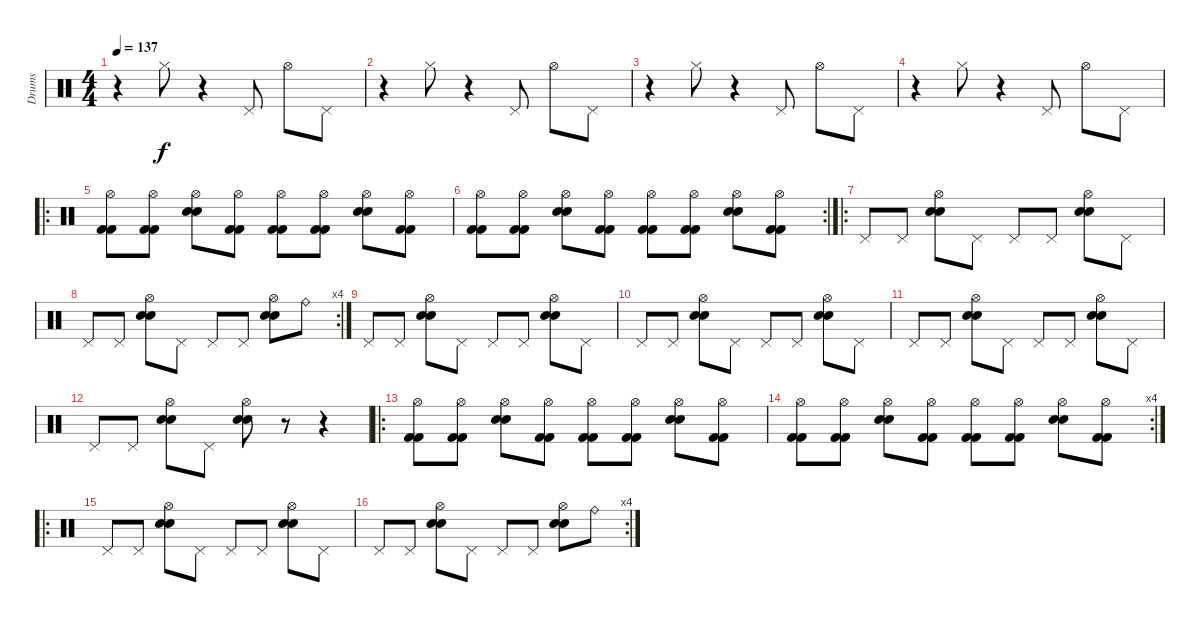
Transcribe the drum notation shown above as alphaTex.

\track ("Drums" "Drums") {instrument percussion}
\staff {score}
\articulation defaults
\ts (4 4)
\tempo 137
\clef neutral
\ks c
r.4{dy f} "Hi-Hat (closed)".8 r.4 "Pedal Hi-Hat (hit)".8 "Hi-Hat (open)".8 "Pedal Hi-Hat (hit)".8 |
r.4 "Hi-Hat (closed)".8 r.4 "Pedal Hi-Hat (hit)".8 "Hi-Hat (open)".8 "Pedal Hi-Hat (hit)".8 |
r.4 "Hi-Hat (closed)".8 r.4 "Pedal Hi-Hat (hit)".8 "Hi-Hat (open)".8 "Pedal Hi-Hat (hit)".8 |
r.4 "Hi-Hat (closed)".8 r.4 "Pedal Hi-Hat (hit)".8 "Hi-Hat (open)".8 "Pedal Hi-Hat (hit)".8 |
\ro
("Hi-Hat (open)" "Kick (hit) 2" "Kick (hit) 2").8 ("Hi-Hat (open)" "Kick (hit) 2" "Kick (hit) 2").8 ("Hi-Hat (open)" "Electric Snare (hit)" "Electric Snare (hit)").8 ("Hi-Hat (open)" "Kick (hit) 2" "Kick (hit) 2").8 ("Hi-Hat (open)" "Kick (hit) 2" "Kick (hit) 2").8 ("Hi-Hat (open)" "Kick (hit) 2" "Kick (hit) 2").8 ("Hi-Hat (open)" "Electric Snare (hit)" "Electric Snare (hit)").8 ("Hi-Hat (open)" "Kick (hit) 2" "Kick (hit) 2").8 |
\rc 2
("Hi-Hat (open)" "Kick (hit) 2" "Kick (hit) 2").8 ("Hi-Hat (open)" "Kick (hit) 2" "Kick (hit) 2").8 ("Hi-Hat (open)" "Electric Snare (hit)" "Electric Snare (hit)").8 ("Hi-Hat (open)" "Kick (hit) 2" "Kick (hit) 2").8 ("Hi-Hat (open)" "Kick (hit) 2" "Kick (hit) 2").8 ("Hi-Hat (open)" "Kick (hit) 2" "Kick (hit) 2").8 ("Hi-Hat (open)" "Electric Snare (hit)" "Electric Snare (hit)").8 ("Hi-Hat (open)" "Kick (hit) 2" "Kick (hit) 2").8 |
\ro "Pedal Hi-Hat (hit)".8 "Pedal Hi-Hat (hit)".8
("Hi-Hat (open)" "Electric Snare (hit)" "Electric Snare (hit)").8 "Pedal Hi-Hat (hit)".8 "Pedal Hi-Hat (hit)".8 "Pedal Hi-Hat (hit)".8 ("Hi-Hat (open)" "Electric Snare (hit)" "Electric Snare (hit)").8 "Pedal Hi-Hat (hit)".8 |
\rc 4 "Pedal Hi-Hat (hit)".8 "Pedal Hi-Hat (hit)".8
("Hi-Hat (open)" "Electric Snare (hit)" "Electric Snare (hit)").8 "Pedal Hi-Hat (hit)".8 "Pedal Hi-Hat (hit)".8 "Pedal Hi-Hat (hit)".8 ("Hi-Hat (open)" "Electric Snare (hit)" "Electric Snare (hit)").8 "Ride (bell)".8 |
"Pedal Hi-Hat (hit)".8 "Pedal Hi-Hat (hit)".8 ("Hi-Hat (open)" "Electric Snare (hit)" "Electric Snare (hit)").8 "Pedal Hi-Hat (hit)".8 "Pedal Hi-Hat (hit)".8 "Pedal Hi-Hat (hit)".8 ("Hi-Hat (open)" "Electric Snare (hit)" "Electric Snare (hit)").8 "Pedal Hi-Hat (hit)".8 |
"Pedal Hi-Hat (hit)".8 "Pedal Hi-Hat (hit)".8 ("Hi-Hat (open)" "Electric Snare (hit)" "Electric Snare (hit)").8 "Pedal Hi-Hat (hit)".8 "Pedal Hi-Hat (hit)".8 "Pedal Hi-Hat (hit)".8 ("Hi-Hat (open)" "Electric Snare (hit)" "Electric Snare (hit)").8 "Pedal Hi-Hat (hit)".8 |
"Pedal Hi-Hat (hit)".8 "Pedal Hi-Hat (hit)".8 ("Hi-Hat (open)" "Electric Snare (hit)" "Electric Snare (hit)").8 "Pedal Hi-Hat (hit)".8 "Pedal Hi-Hat (hit)".8 "Pedal Hi-Hat (hit)".8 ("Hi-Hat (open)" "Electric Snare (hit)" "Electric Snare (hit)").8 "Pedal Hi-Hat (hit)".8 |
"Pedal Hi-Hat (hit)".8 "Pedal Hi-Hat (hit)".8 ("Hi-Hat (open)" "Electric Snare (hit)" "Electric Snare (hit)").8 "Pedal Hi-Hat (hit)".8 ("Hi-Hat (open)" "Electric Snare (hit)" "Electric Snare (hit)").8 r.8 r.4 |
\ro
("Hi-Hat (open)" "Kick (hit) 2" "Kick (hit) 2").8 ("Hi-Hat (open)" "Kick (hit) 2" "Kick (hit) 2").8 ("Hi-Hat (open)" "Electric Snare (hit)" "Electric Snare (hit)").8 ("Hi-Hat (open)" "Kick (hit) 2" "Kick (hit) 2").8 ("Hi-Hat (open)" "Kick (hit) 2" "Kick (hit) 2").8 ("Hi-Hat (open)" "Kick (hit) 2" "Kick (hit) 2").8 ("Hi-Hat (open)" "Electric Snare (hit)" "Electric Snare (hit)").8 ("Hi-Hat (open)" "Kick (hit) 2" "Kick (hit) 2").8 |
\rc 4
("Hi-Hat (open)" "Kick (hit) 2" "Kick (hit) 2").8 ("Hi-Hat (open)" "Kick (hit) 2" "Kick (hit) 2").8 ("Hi-Hat (open)" "Electric Snare (hit)" "Electric Snare (hit)").8 ("Hi-Hat (open)" "Kick (hit) 2" "Kick (hit) 2").8 ("Hi-Hat (open)" "Kick (hit) 2" "Kick (hit) 2").8 ("Hi-Hat (open)" "Kick (hit) 2" "Kick (hit) 2").8 ("Hi-Hat (open)" "Electric Snare (hit)" "Electric Snare (hit)").8 ("Hi-Hat (open)" "Kick (hit) 2" "Kick (hit) 2").8 |
\ro "Pedal Hi-Hat (hit)".8 "Pedal Hi-Hat (hit)".8
("Hi-Hat (open)" "Electric Snare (hit)" "Electric Snare (hit)").8 "Pedal Hi-Hat (hit)".8 "Pedal Hi-Hat (hit)".8 "Pedal Hi-Hat (hit)".8 ("Hi-Hat (open)" "Electric Snare (hit)" "Electric Snare (hit)").8 "Pedal Hi-Hat (hit)".8 |
\rc 4 "Pedal Hi-Hat (hit)".8 "Pedal Hi-Hat (hit)".8
("Hi-Hat (open)" "Electric Snare (hit)" "Electric Snare (hit)").8 "Pedal Hi-Hat (hit)".8 "Pedal Hi-Hat (hit)".8 "Pedal Hi-Hat (hit)".8 ("Hi-Hat (open)" "Electric Snare (hit)" "Electric Snare (hit)").8 "Ride (bell)".8
